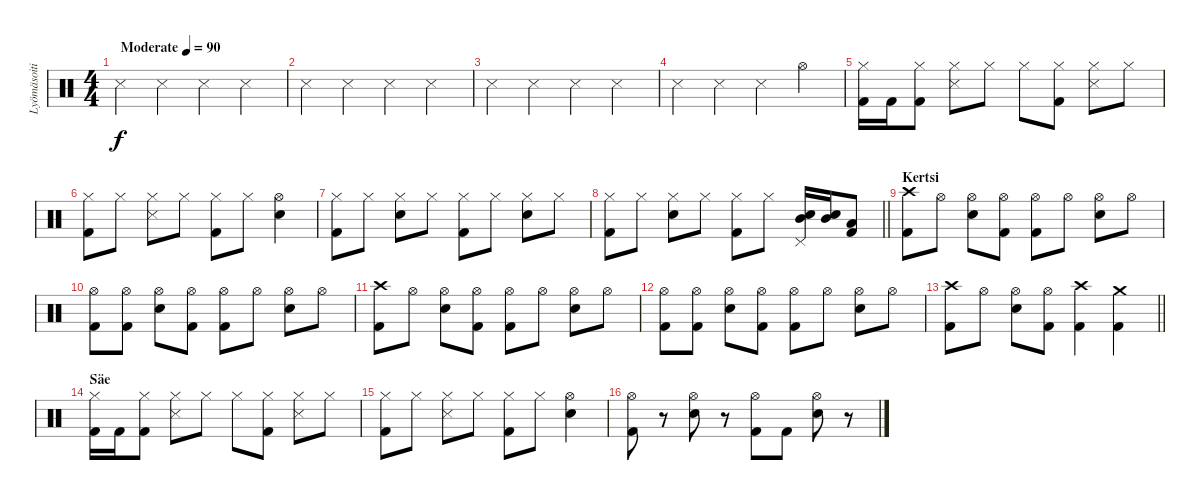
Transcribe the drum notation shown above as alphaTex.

\track ("Lyömäsoitin" "Lyömäsoiti") {instrument percussion}
\staff {score}
\articulation defaults
\ts (4 4)
\tempo (90 "Moderate")
\clef neutral
\ks c "Snare (side stick) 3".4{dy f} "Snare (side stick) 3".4 "Snare (side stick) 3".4 "Snare (side stick) 3".4
|
"Snare (side stick) 3".4 "Snare (side stick) 3".4 "Snare (side stick) 3".4 "Snare (side stick) 3".4 |
"Snare (side stick) 3".4 "Snare (side stick) 3".4 "Snare (side stick) 3".4 "Snare (side stick) 3".4 |
"Snare (side stick) 3".4 "Snare (side stick) 3".4 "Snare (side stick) 3".4 "Hi-Hat (open)".4 |
("Hi-Hat (closed)" "Kick (hit) 2").16 "Kick (hit) 2".16 ("Hi-Hat (closed)" "Kick (hit) 2").8 ("Hi-Hat (closed)" "Snare (side stick) 3").8 "Hi-Hat (closed)".8 "Hi-Hat (closed)".8 ("Hi-Hat (closed)" "Kick (hit) 2").8 ("Hi-Hat (closed)" "Snare (side stick) 3").8 "Hi-Hat (closed)".8 |
("Hi-Hat (closed)" "Kick (hit) 2").8 "Hi-Hat (closed)".8 ("Hi-Hat (closed)" "Snare (side stick) 3").8 "Hi-Hat (closed)".8 ("Hi-Hat (closed)" "Kick (hit) 2").8 "Hi-Hat (closed)".8 ("Hi-Hat (open)" "Snare (hit) 2").4 |
("Hi-Hat (closed)" "Kick (hit) 2").8 "Hi-Hat (closed)".8 ("Hi-Hat (closed)" "Snare (hit) 2").8 "Hi-Hat (closed)".8 ("Hi-Hat (closed)" "Kick (hit) 2").8 "Hi-Hat (closed)".8 ("Hi-Hat (closed)" "Snare (hit) 2").8 "Hi-Hat (closed)".8 |
\barLineRight lightlight
("Hi-Hat (closed)" "Kick (hit) 2").8 "Hi-Hat (closed)".8 ("Hi-Hat (closed)" "Snare (hit) 2").8 "Hi-Hat (closed)".8 ("Hi-Hat (closed)" "Kick (hit) 2").8 "Hi-Hat (closed)".8 ("Pedal Hi-Hat (hit)" "Mid Tom (hit)" "Snare (hit) 2").16 ("Mid Tom (hit)" "Snare (hit) 2").16 ("Low Tom (hit)" "Kick (hit) 2").8 |
\section ("" "Kertsi")
("Crash high (hit)" "Kick (hit) 2").8 "Hi-Hat (open)".8 ("Hi-Hat (open)" "Snare (hit) 2").8 ("Hi-Hat (open)" "Kick (hit) 2").8 ("Hi-Hat (open)" "Kick (hit) 2").8 "Hi-Hat (open)".8 ("Hi-Hat (open)" "Snare (hit) 2").8 "Hi-Hat (open)".8 |
("Hi-Hat (open)" "Kick (hit) 2").8 ("Hi-Hat (open)" "Kick (hit) 2").8 ("Hi-Hat (open)" "Snare (hit) 2").8 ("Hi-Hat (open)" "Kick (hit) 2").8 ("Hi-Hat (open)" "Kick (hit) 2").8 "Hi-Hat (open)".8 ("Hi-Hat (open)" "Snare (hit) 2").8 "Hi-Hat (open)".8 |
("Crash high (hit)" "Kick (hit) 2").8 "Hi-Hat (open)".8 ("Hi-Hat (open)" "Snare (hit) 2").8 ("Hi-Hat (open)" "Kick (hit) 2").8 ("Hi-Hat (open)" "Kick (hit) 2").8 "Hi-Hat (open)".8 ("Hi-Hat (open)" "Snare (hit) 2").8 "Hi-Hat (open)".8 |
("Hi-Hat (open)" "Kick (hit) 2").8 ("Hi-Hat (open)" "Kick (hit) 2").8 ("Hi-Hat (open)" "Snare (hit) 2").8 ("Hi-Hat (open)" "Kick (hit) 2").8 ("Hi-Hat (open)" "Kick (hit) 2").8 "Hi-Hat (open)".8 ("Hi-Hat (open)" "Snare (hit) 2").8 "Hi-Hat (open)".8 |
\barLineRight lightlight
("Crash high (hit)" "Kick (hit) 2").8 "Hi-Hat (open)".8 ("Hi-Hat (open)" "Snare (hit) 2").8 ("Hi-Hat (open)" "Kick (hit) 2").8 ("Crash high (hit)" "Kick (hit) 2").4 ("Crash medium (hit)" "Kick (hit) 2").4 |
\section ("" "Säe")
("Hi-Hat (closed)" "Kick (hit) 2").16 "Kick (hit) 2".16 ("Hi-Hat (closed)" "Kick (hit) 2").8 ("Hi-Hat (closed)" "Snare (side stick) 3").8 "Hi-Hat (closed)".8 "Hi-Hat (closed)".8 ("Hi-Hat (closed)" "Kick (hit) 2").8 ("Hi-Hat (closed)" "Snare (side stick) 3").8 "Hi-Hat (closed)".8 |
("Hi-Hat (closed)" "Kick (hit) 2").8 "Hi-Hat (closed)".8 ("Hi-Hat (closed)" "Snare (side stick) 3").8 "Hi-Hat (closed)".8 ("Hi-Hat (closed)" "Kick (hit) 2").8 "Hi-Hat (closed)".8 ("Hi-Hat (open)" "Snare (hit) 2").4 |
("Hi-Hat (open)" "Kick (hit) 2").8 r.8 ("Hi-Hat (open)" "Snare (hit) 2").8 r.8 ("Hi-Hat (open)" "Kick (hit) 2").8 "Kick (hit) 2".8 ("Hi-Hat (open)" "Snare (hit) 2").8 r.8
